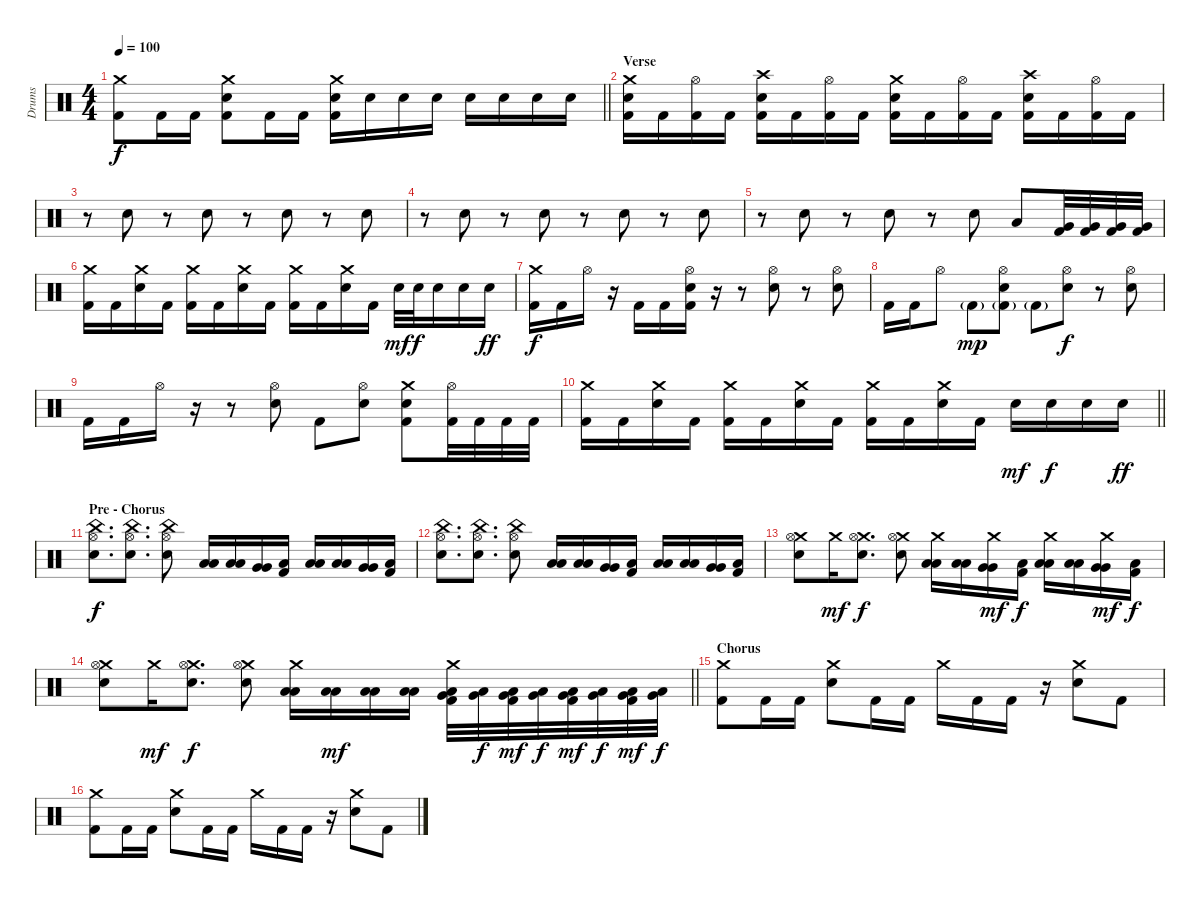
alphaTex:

\track ("Drums" "Drums") {instrument percussion}
\staff {score}
\articulation defaults
\ts (4 4)
\tempo 100
\clef neutral
\barLineRight lightlight
\ks c
("Crash medium (hit)" "Kick (hit) 2").8{dy f} "Kick (hit) 2".16 "Kick (hit) 2".16 ("Crash medium (hit)" "Electric Snare (hit)" "Kick (hit) 2").8 "Kick (hit) 2".16 "Kick (hit) 2".16 ("Crash medium (hit)" "Electric Snare (hit)" "Kick (hit) 2").16 "Electric Snare (hit)".16 "Electric Snare (hit)".16 "Electric Snare (hit)".16 "Electric Snare (hit)".16 "Electric Snare (hit)".16 "Electric Snare (hit)".16 "Electric Snare (hit)".16 |
\section ("" "Verse")
("Crash medium (hit)" "Electric Snare (hit)" "Kick (hit) 2").16 "Kick (hit) 2".16 ("Hi-Hat (open)" "Kick (hit) 2").16 "Kick (hit) 2".16 ("Crash high (hit)" "Electric Snare (hit)" "Kick (hit) 2").16 "Kick (hit) 2".16 ("Hi-Hat (open)" "Kick (hit) 2").16 "Kick (hit) 2".16 ("Crash medium (hit)" "Electric Snare (hit)" "Kick (hit) 2").16 "Kick (hit) 2".16 ("Hi-Hat (open)" "Kick (hit) 2").16 "Kick (hit) 2".16 ("Crash high (hit)" "Electric Snare (hit)" "Kick (hit) 2").16 "Kick (hit) 2".16 ("Hi-Hat (open)" "Kick (hit) 2").16 "Kick (hit) 2".16 |
r.8 "Electric Snare (hit)".8 r.8 "Electric Snare (hit)".8 r.8 "Electric Snare (hit)".8 r.8 "Electric Snare (hit)".8 |
r.8 "Electric Snare (hit)".8 r.8 "Electric Snare (hit)".8 r.8 "Electric Snare (hit)".8 r.8 "Electric Snare (hit)".8 |
r.8 "Electric Snare (hit)".8 r.8 "Electric Snare (hit)".8 r.8 "Electric Snare (hit)".8 "Low Tom (hit)".8 ("Very Low Tom (hit)" "Kick (hit) 2").32 ("Very Low Tom (hit)" "Kick (hit) 2").32 ("Very Low Tom (hit)" "Kick (hit) 2").32 ("Very Low Tom (hit)" "Kick (hit) 2").32 |
("Crash medium (hit)" "Kick (hit) 2").16 "Kick (hit) 2".16 ("Crash medium (hit)" "Electric Snare (hit)").16 "Kick (hit) 2".16 ("Crash medium (hit)" "Kick (hit) 2").16 "Kick (hit) 2".16 ("Crash medium (hit)" "Electric Snare (hit)").16 "Kick (hit) 2".16 ("Crash medium (hit)" "Kick (hit) 2").16 "Kick (hit) 2".16 ("Crash medium (hit)" "Electric Snare (hit)").16 "Kick (hit) 2".16 "Electric Snare (hit)".32{dy mf} "Electric Snare (hit)".32{dy f} "Electric Snare (hit)".16 "Electric Snare (hit)".16 "Electric Snare (hit)".16{dy ff} |
("Crash medium (hit)" "Kick (hit) 2").16{dy f} "Kick (hit) 2".16 "Hi-Hat (open)".16 r.16 "Kick (hit) 2".16 "Kick (hit) 2".16 ("Hi-Hat (open)" "Electric Snare (hit)" "Kick (hit) 2").16 r.16 r.8 ("Hi-Hat (open)" "Electric Snare (hit)").8 r.8 ("Hi-Hat (open)" "Electric Snare (hit)").8 |
"Kick (hit) 2".16 "Kick (hit) 2".16 "Hi-Hat (open)".8 "Kick (hit) 2"{g}.8{dy mp} ("Hi-Hat (open)" "Electric Snare (hit)" "Kick (hit) 2"{g}).8 "Kick (hit) 2"{g}.8 ("Hi-Hat (open)" "Electric Snare (hit)").8{dy f} r.8 ("Hi-Hat (open)" "Electric Snare (hit)").8 |
"Kick (hit) 2".16 "Kick (hit) 2".16 "Hi-Hat (open)".16 r.16 r.8 ("Hi-Hat (open)" "Electric Snare (hit)").8 "Kick (hit) 2".8 ("Hi-Hat (open)" "Electric Snare (hit)").8 ("Crash medium (hit)" "Electric Snare (hit)" "Kick (hit) 2").8 ("Hi-Hat (open)" "Kick (hit) 2").32 "Kick (hit) 2".32 "Kick (hit) 2".32 "Kick (hit) 2".32 |
\barLineRight lightlight
("Crash medium (hit)" "Kick (hit) 2").16 "Kick (hit) 2".16 ("Crash medium (hit)" "Electric Snare (hit)").16 "Kick (hit) 2".16 ("Crash medium (hit)" "Kick (hit) 2").16 "Kick (hit) 2".16 ("Crash medium (hit)" "Electric Snare (hit)").16 "Kick (hit) 2".16 ("Crash medium (hit)" "Kick (hit) 2").16 "Kick (hit) 2".16 ("Crash medium (hit)" "Electric Snare (hit)").16 "Kick (hit) 2".16 "Electric Snare (hit)".16{dy mf} "Electric Snare (hit)".16{dy f} "Electric Snare (hit)".16 "Electric Snare (hit)".16{dy ff} |
\section ("" "Pre - Chorus")
("China (hit)" "Hi-Hat (open)" "Snare (hit) 2").8{d dy f} ("China (hit)" "Hi-Hat (open)" "Snare (hit) 2").8{d} ("China (hit)" "Hi-Hat (open)" "Snare (hit) 2").8 ("Low Floor Tom (hit)" "Low Floor Tom (hit)").16 ("Low Floor Tom (hit)" "Low Floor Tom (hit)").16 ("Very Low Tom (hit)" "Very Low Tom (hit)").16 ("Low Tom (hit)" "Kick (hit) 2").16 ("Low Floor Tom (hit)" "Low Floor Tom (hit)").16 ("Low Floor Tom (hit)" "Low Floor Tom (hit)").16 ("Very Low Tom (hit)" "Very Low Tom (hit)").16 ("Low Tom (hit)" "Kick (hit) 2").16 |
("China (hit)" "Hi-Hat (open)" "Snare (hit) 2").8{d} ("China (hit)" "Hi-Hat (open)" "Snare (hit) 2").8{d} ("China (hit)" "Hi-Hat (open)" "Snare (hit) 2").8 ("Low Floor Tom (hit)" "Low Floor Tom (hit)").16 ("Low Floor Tom (hit)" "Low Floor Tom (hit)").16 ("Very Low Tom (hit)" "Very Low Tom (hit)").16 ("Low Tom (hit)" "Kick (hit) 2").16 ("Low Floor Tom (hit)" "Low Floor Tom (hit)").16 ("Low Floor Tom (hit)" "Low Floor Tom (hit)").16 ("Very Low Tom (hit)" "Very Low Tom (hit)").16 ("Low Tom (hit)" "Kick (hit) 2").16 |
("Crash medium (hit)" "Hi-Hat (open)" "Snare (hit) 2").8 "Crash medium (hit)".16{dy mf} ("Crash medium (hit)" "Hi-Hat (open)" "Snare (hit) 2").8{d dy f} ("Crash medium (hit)" "Hi-Hat (open)" "Snare (hit) 2").8 ("Crash medium (hit)" "Low Floor Tom (hit)" "Low Floor Tom (hit)").16 ("Low Floor Tom (hit)" "Low Floor Tom (hit)").16 ("Crash medium (hit)" "Very Low Tom (hit)" "Very Low Tom (hit)").16{dy mf} ("Low Tom (hit)" "Kick (hit) 2").16{dy f} ("Crash medium (hit)" "Low Floor Tom (hit)" "Low Floor Tom (hit)").16 ("Low Floor Tom (hit)" "Low Floor Tom (hit)").16 ("Crash medium (hit)" "Very Low Tom (hit)" "Very Low Tom (hit)").16{dy mf} ("Low Tom (hit)" "Kick (hit) 2").16{dy f} |
\barLineRight lightlight
("Crash medium (hit)" "Hi-Hat (open)" "Snare (hit) 2").8 "Crash medium (hit)".16{dy mf} ("Crash medium (hit)" "Hi-Hat (open)" "Snare (hit) 2").8{d dy f} ("Crash medium (hit)" "Hi-Hat (open)" "Snare (hit) 2").8 ("Crash medium (hit)" "Low Floor Tom (hit)" "Low Floor Tom (hit)").16 ("Low Floor Tom (hit)" "Low Floor Tom (hit)").16{dy mf} ("Low Floor Tom (hit)" "Low Floor Tom (hit)").16 ("Low Floor Tom (hit)" "Low Floor Tom (hit)").16 ("Crash medium (hit)" "Low Floor Tom (hit)" "Very Low Tom (hit)" "Kick (hit) 2").32 ("Low Floor Tom (hit)" "Very Low Tom (hit)").32{dy f} ("Low Floor Tom (hit)" "Very Low Tom (hit)" "Kick (hit) 2").32{dy mf} ("Low Floor Tom (hit)" "Very Low Tom (hit)").32{dy f} ("Low Floor Tom (hit)" "Very Low Tom (hit)" "Kick (hit) 2").32{dy mf} ("Low Floor Tom (hit)" "Very Low Tom (hit)").32{dy f} ("Low Floor Tom (hit)" "Very Low Tom (hit)" "Kick (hit) 2").32{dy mf} ("Low Floor Tom (hit)" "Very Low Tom (hit)").32{dy f} |
\section ("" "Chorus")
("Crash medium (hit)" "Kick (hit) 2").8 "Kick (hit) 2".16 "Kick (hit) 2".16 ("Crash medium (hit)" "Electric Snare (hit)").8 "Kick (hit) 2".16 "Kick (hit) 2".16 "Crash medium (hit)".16 "Kick (hit) 2".16 "Kick (hit) 2".16 r.16 ("Crash medium (hit)" "Electric Snare (hit)").8 "Kick (hit) 2".8 |
("Crash medium (hit)" "Kick (hit) 2").8 "Kick (hit) 2".16 "Kick (hit) 2".16 ("Crash medium (hit)" "Electric Snare (hit)").8 "Kick (hit) 2".16 "Kick (hit) 2".16 "Crash medium (hit)".16 "Kick (hit) 2".16 "Kick (hit) 2".16 r.16 ("Crash medium (hit)" "Electric Snare (hit)").8 "Kick (hit) 2".8
